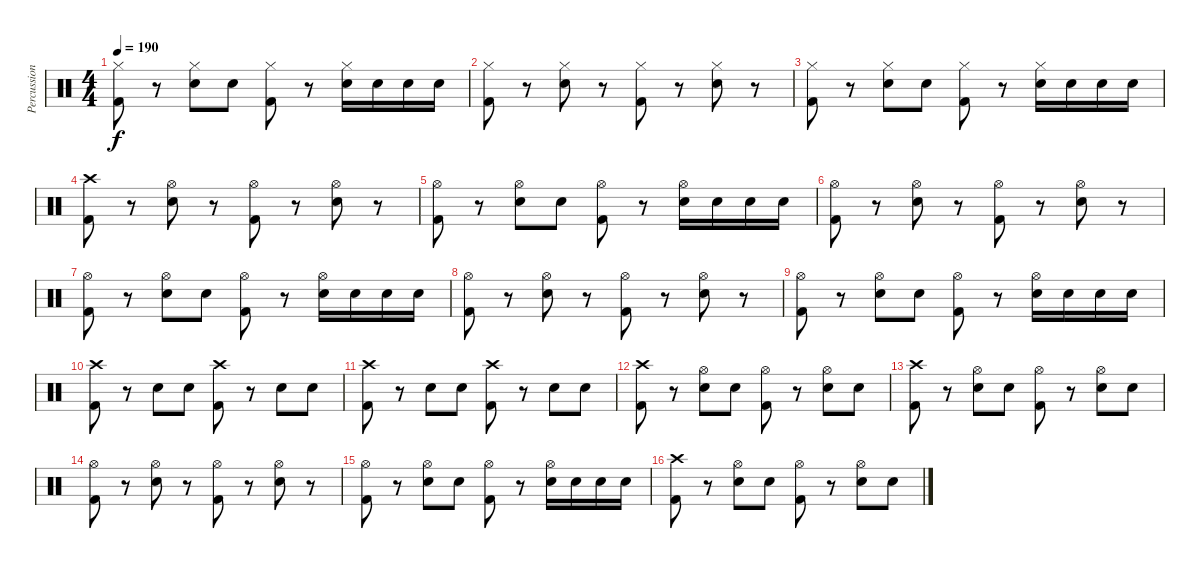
\track ("Percussioni" "Percussion") {instrument percussion}
\staff {score}
\articulation defaults
\ts (4 4)
\tempo 190
\clef neutral
\ks c
("Kick (hit) 2" "Hi-Hat (closed)").8{dy f} r.8 ("Electric Snare (hit)" "Hi-Hat (closed)").8 "Electric Snare (hit)".8 ("Kick (hit) 2" "Hi-Hat (closed)").8 r.8 ("Electric Snare (hit)" "Hi-Hat (closed)").16 "Electric Snare (hit)".16 "Electric Snare (hit)".16 "Electric Snare (hit)".16 |
("Kick (hit) 2" "Hi-Hat (closed)").8 r.8 ("Electric Snare (hit)" "Hi-Hat (closed)").8 r.8 ("Kick (hit) 2" "Hi-Hat (closed)").8 r.8 ("Electric Snare (hit)" "Hi-Hat (closed)").8 r.8 |
("Kick (hit) 2" "Hi-Hat (closed)").8 r.8 ("Electric Snare (hit)" "Hi-Hat (closed)").8 "Electric Snare (hit)".8 ("Kick (hit) 2" "Hi-Hat (closed)").8 r.8 ("Electric Snare (hit)" "Hi-Hat (closed)").16 "Electric Snare (hit)".16 "Electric Snare (hit)".16 "Electric Snare (hit)".16 |
("Kick (hit) 2" "Crash high (hit)").8 r.8 ("Electric Snare (hit)" "Hi-Hat (open)").8 r.8 ("Kick (hit) 2" "Hi-Hat (open)").8 r.8 ("Electric Snare (hit)" "Hi-Hat (open)").8 r.8 |
("Kick (hit) 2" "Hi-Hat (open)").8 r.8 ("Electric Snare (hit)" "Hi-Hat (open)").8 "Electric Snare (hit)".8 ("Kick (hit) 2" "Hi-Hat (open)").8 r.8 ("Electric Snare (hit)" "Hi-Hat (open)").16 "Electric Snare (hit)".16 "Electric Snare (hit)".16 "Electric Snare (hit)".16 |
("Kick (hit) 2" "Hi-Hat (open)").8 r.8 ("Electric Snare (hit)" "Hi-Hat (open)").8 r.8 ("Kick (hit) 2" "Hi-Hat (open)").8 r.8 ("Electric Snare (hit)" "Hi-Hat (open)").8 r.8 |
("Kick (hit) 2" "Hi-Hat (open)").8 r.8 ("Electric Snare (hit)" "Hi-Hat (open)").8 "Electric Snare (hit)".8 ("Kick (hit) 2" "Hi-Hat (open)").8 r.8 ("Electric Snare (hit)" "Hi-Hat (open)").16 "Electric Snare (hit)".16 "Electric Snare (hit)".16 "Electric Snare (hit)".16 |
("Kick (hit) 2" "Hi-Hat (open)").8 r.8 ("Electric Snare (hit)" "Hi-Hat (open)").8 r.8 ("Kick (hit) 2" "Hi-Hat (open)").8 r.8 ("Electric Snare (hit)" "Hi-Hat (open)").8 r.8 |
("Kick (hit) 2" "Hi-Hat (open)").8 r.8 ("Electric Snare (hit)" "Hi-Hat (open)").8 "Electric Snare (hit)".8 ("Kick (hit) 2" "Hi-Hat (open)").8 r.8 ("Electric Snare (hit)" "Hi-Hat (open)").16 "Electric Snare (hit)".16 "Electric Snare (hit)".16 "Electric Snare (hit)".16 |
("Kick (hit) 2" "Crash high (hit)").8 r.8 "Electric Snare (hit)".8 "Electric Snare (hit)".8 ("Kick (hit) 2" "Crash high (hit)").8 r.8 "Electric Snare (hit)".8 "Electric Snare (hit)".8 |
("Kick (hit) 2" "Crash high (hit)").8 r.8 "Electric Snare (hit)".8 "Electric Snare (hit)".8 ("Kick (hit) 2" "Crash high (hit)").8 r.8 "Electric Snare (hit)".8 "Electric Snare (hit)".8 |
("Kick (hit) 2" "Crash high (hit)").8 r.8 ("Electric Snare (hit)" "Hi-Hat (open)").8 "Electric Snare (hit)".8 ("Kick (hit) 2" "Hi-Hat (open)").8 r.8 ("Electric Snare (hit)" "Hi-Hat (open)").8 "Electric Snare (hit)".8 |
("Kick (hit) 2" "Crash high (hit)").8 r.8 ("Electric Snare (hit)" "Hi-Hat (open)").8 "Electric Snare (hit)".8 ("Kick (hit) 2" "Hi-Hat (open)").8 r.8 ("Electric Snare (hit)" "Hi-Hat (open)").8 "Electric Snare (hit)".8 |
("Kick (hit) 2" "Hi-Hat (open)").8 r.8 ("Electric Snare (hit)" "Hi-Hat (open)").8 r.8 ("Kick (hit) 2" "Hi-Hat (open)").8 r.8 ("Electric Snare (hit)" "Hi-Hat (open)").8 r.8 |
("Kick (hit) 2" "Hi-Hat (open)").8 r.8 ("Electric Snare (hit)" "Hi-Hat (open)").8 "Electric Snare (hit)".8 ("Kick (hit) 2" "Hi-Hat (open)").8 r.8 ("Electric Snare (hit)" "Hi-Hat (open)").16 "Electric Snare (hit)".16 "Electric Snare (hit)".16 "Electric Snare (hit)".16 |
("Kick (hit) 2" "Crash high (hit)").8 r.8 ("Electric Snare (hit)" "Hi-Hat (open)").8 "Electric Snare (hit)".8 ("Kick (hit) 2" "Hi-Hat (open)").8 r.8 ("Electric Snare (hit)" "Hi-Hat (open)").8 "Electric Snare (hit)".8
